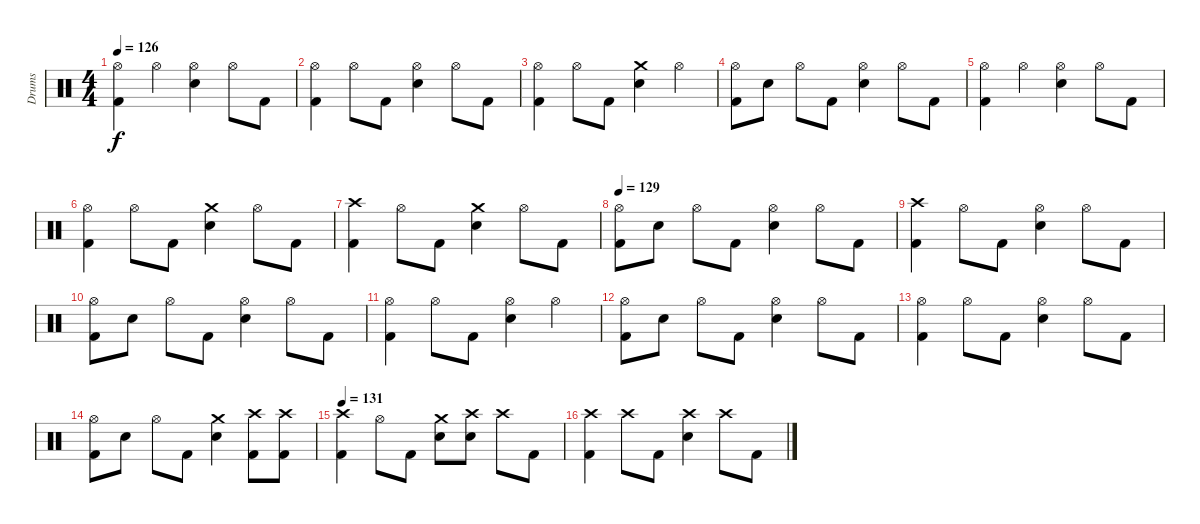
\track ("Drums" "Drums") {instrument percussion}
\staff {score}
\articulation defaults
\ts (4 4)
\tempo 126
\clef neutral
\ks c
("Hi-Hat (open)" "Kick (hit) 2").4{dy f} "Hi-Hat (open)".4 ("Hi-Hat (open)" "Electric Snare (hit)").4 "Hi-Hat (open)".8 "Kick (hit) 2".8 |
("Hi-Hat (open)" "Kick (hit) 2").4 "Hi-Hat (open)".8 "Kick (hit) 2".8 ("Hi-Hat (open)" "Electric Snare (hit)").4 "Hi-Hat (open)".8 "Kick (hit) 2".8 |
("Hi-Hat (open)" "Kick (hit) 2").4 "Hi-Hat (open)".8 "Kick (hit) 2".8 ("Crash medium (hit)" "Electric Snare (hit)").4 "Hi-Hat (open)".4 |
("Hi-Hat (open)" "Kick (hit) 2").8 "Electric Snare (hit)".8 "Hi-Hat (open)".8 "Kick (hit) 2".8 ("Hi-Hat (open)" "Electric Snare (hit)").4 "Hi-Hat (open)".8 "Kick (hit) 2".8 |
("Hi-Hat (open)" "Kick (hit) 2").4 "Hi-Hat (open)".4 ("Hi-Hat (open)" "Electric Snare (hit)").4 "Hi-Hat (open)".8 "Kick (hit) 2".8 |
("Hi-Hat (open)" "Kick (hit) 2").4 "Hi-Hat (open)".8 "Kick (hit) 2".8 ("Crash medium (hit)" "Electric Snare (hit)").4 "Hi-Hat (open)".8 "Kick (hit) 2".8 |
("Crash high (hit)" "Kick (hit) 2").4 "Hi-Hat (open)".8 "Kick (hit) 2".8 ("Crash medium (hit)" "Electric Snare (hit)").4 "Hi-Hat (open)".8 "Kick (hit) 2".8 |
\tempo 129
("Hi-Hat (open)" "Kick (hit) 2").8 "Electric Snare (hit)".8 "Hi-Hat (open)".8 "Kick (hit) 2".8 ("Hi-Hat (open)" "Electric Snare (hit)").4 "Hi-Hat (open)".8 "Kick (hit) 2".8 |
("Crash high (hit)" "Kick (hit) 2").4 "Hi-Hat (open)".8 "Kick (hit) 2".8 ("Hi-Hat (open)" "Electric Snare (hit)").4 "Hi-Hat (open)".8 "Kick (hit) 2".8 |
("Hi-Hat (open)" "Kick (hit) 2").8 "Electric Snare (hit)".8 "Hi-Hat (open)".8 "Kick (hit) 2".8 ("Hi-Hat (open)" "Electric Snare (hit)").4 "Hi-Hat (open)".8 "Kick (hit) 2".8 |
("Hi-Hat (open)" "Kick (hit) 2").4 "Hi-Hat (open)".8 "Kick (hit) 2".8 ("Hi-Hat (open)" "Electric Snare (hit)").4 "Hi-Hat (open)".4 |
("Hi-Hat (open)" "Kick (hit) 2").8 "Electric Snare (hit)".8 "Hi-Hat (open)".8 "Kick (hit) 2".8 ("Hi-Hat (open)" "Electric Snare (hit)").4 "Hi-Hat (open)".8 "Kick (hit) 2".8 |
("Hi-Hat (open)" "Kick (hit) 2").4 "Hi-Hat (open)".8 "Kick (hit) 2".8 ("Hi-Hat (open)" "Electric Snare (hit)").4 "Hi-Hat (open)".8 "Kick (hit) 2".8 |
("Hi-Hat (open)" "Kick (hit) 2").8 "Electric Snare (hit)".8 "Hi-Hat (open)".8 "Kick (hit) 2".8 ("Crash medium (hit)" "Electric Snare (hit)").4 ("Crash high (hit)" "Kick (hit) 2").8 ("Crash high (hit)" "Kick (hit) 2").8 |
\tempo 131
("Crash high (hit)" "Kick (hit) 2").4 "Hi-Hat (open)".8 "Kick (hit) 2".8 ("Crash medium (hit)" "Electric Snare (hit)").8 ("Crash high (hit)" "Electric Snare (hit)").8 "Crash high (hit)".8 "Kick (hit) 2".8 |
("Crash high (hit)" "Kick (hit) 2").4 "Crash high (hit)".8 "Kick (hit) 2".8 ("Crash high (hit)" "Electric Snare (hit)").4 "Crash high (hit)".8 "Kick (hit) 2".8
